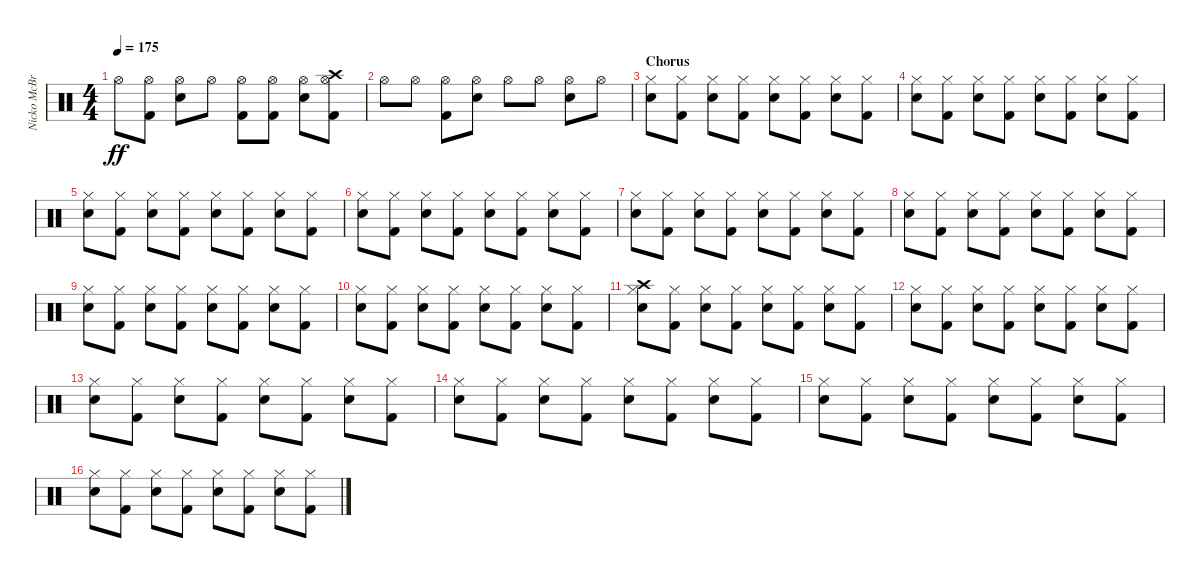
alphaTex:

\track ("Nicko McBrain" "Nicko McBr") {instrument percussion}
\staff {score}
\articulation defaults
\ts (4 4)
\tempo 175
\clef neutral
\ks c "Hi-Hat (open)".8{dy ff}
("Kick (hit) 2" "Hi-Hat (open)").8 ("Snare (hit) 2" "Hi-Hat (open)").8 "Hi-Hat (open)".8 ("Kick (hit) 2" "Hi-Hat (open)").8 ("Kick (hit) 2" "Hi-Hat (open)").8 ("Snare (hit) 2" "Hi-Hat (open)").8 ("Kick (hit) 2" "Hi-Hat (open)" "Crash high (hit)").8 |
"Hi-Hat (open)".8 "Hi-Hat (open)".8 ("Kick (hit) 2" "Hi-Hat (open)").8 ("Snare (hit) 2" "Hi-Hat (open)").8 "Hi-Hat (open)".8 "Hi-Hat (open)".8 ("Snare (hit) 2" "Hi-Hat (open)").8 "Hi-Hat (open)".8 |
\section ("" "Chorus")
("Snare (hit) 2" "Hi-Hat (closed)").8 ("Kick (hit) 2" "Hi-Hat (closed)").8 ("Snare (hit) 2" "Hi-Hat (closed)").8 ("Kick (hit) 2" "Hi-Hat (closed)").8 ("Snare (hit) 2" "Hi-Hat (closed)").8 ("Kick (hit) 2" "Hi-Hat (closed)").8 ("Snare (hit) 2" "Hi-Hat (closed)").8 ("Kick (hit) 2" "Hi-Hat (closed)").8 |
("Snare (hit) 2" "Hi-Hat (closed)").8 ("Kick (hit) 2" "Hi-Hat (closed)").8 ("Snare (hit) 2" "Hi-Hat (closed)").8 ("Kick (hit) 2" "Hi-Hat (closed)").8 ("Snare (hit) 2" "Hi-Hat (closed)").8 ("Kick (hit) 2" "Hi-Hat (closed)").8 ("Snare (hit) 2" "Hi-Hat (closed)").8 ("Kick (hit) 2" "Hi-Hat (closed)").8 |
("Snare (hit) 2" "Hi-Hat (closed)").8 ("Kick (hit) 2" "Hi-Hat (closed)").8 ("Snare (hit) 2" "Hi-Hat (closed)").8 ("Kick (hit) 2" "Hi-Hat (closed)").8 ("Snare (hit) 2" "Hi-Hat (closed)").8 ("Kick (hit) 2" "Hi-Hat (closed)").8 ("Snare (hit) 2" "Hi-Hat (closed)").8 ("Kick (hit) 2" "Hi-Hat (closed)").8 |
("Snare (hit) 2" "Hi-Hat (closed)").8 ("Kick (hit) 2" "Hi-Hat (closed)").8 ("Snare (hit) 2" "Hi-Hat (closed)").8 ("Kick (hit) 2" "Hi-Hat (closed)").8 ("Snare (hit) 2" "Hi-Hat (closed)").8 ("Kick (hit) 2" "Hi-Hat (closed)").8 ("Snare (hit) 2" "Hi-Hat (closed)").8 ("Kick (hit) 2" "Hi-Hat (closed)").8 |
("Snare (hit) 2" "Hi-Hat (closed)").8 ("Kick (hit) 2" "Hi-Hat (closed)").8 ("Snare (hit) 2" "Hi-Hat (closed)").8 ("Kick (hit) 2" "Hi-Hat (closed)").8 ("Snare (hit) 2" "Hi-Hat (closed)").8 ("Kick (hit) 2" "Hi-Hat (closed)").8 ("Snare (hit) 2" "Hi-Hat (closed)").8 ("Kick (hit) 2" "Hi-Hat (closed)").8 |
("Snare (hit) 2" "Hi-Hat (closed)").8 ("Kick (hit) 2" "Hi-Hat (closed)").8 ("Snare (hit) 2" "Hi-Hat (closed)").8 ("Kick (hit) 2" "Hi-Hat (closed)").8 ("Snare (hit) 2" "Hi-Hat (closed)").8 ("Kick (hit) 2" "Hi-Hat (closed)").8 ("Snare (hit) 2" "Hi-Hat (closed)").8 ("Kick (hit) 2" "Hi-Hat (closed)").8 |
("Snare (hit) 2" "Hi-Hat (closed)").8 ("Kick (hit) 2" "Hi-Hat (closed)").8 ("Snare (hit) 2" "Hi-Hat (closed)").8 ("Kick (hit) 2" "Hi-Hat (closed)").8 ("Snare (hit) 2" "Hi-Hat (closed)").8 ("Kick (hit) 2" "Hi-Hat (closed)").8 ("Snare (hit) 2" "Hi-Hat (closed)").8 ("Kick (hit) 2" "Hi-Hat (closed)").8 |
("Snare (hit) 2" "Hi-Hat (closed)").8 ("Kick (hit) 2" "Hi-Hat (closed)").8 ("Snare (hit) 2" "Hi-Hat (closed)").8 ("Kick (hit) 2" "Hi-Hat (closed)").8 ("Snare (hit) 2" "Hi-Hat (closed)").8 ("Kick (hit) 2" "Hi-Hat (closed)").8 ("Snare (hit) 2" "Hi-Hat (closed)").8 ("Kick (hit) 2" "Hi-Hat (closed)").8 |
("Snare (hit) 2" "Hi-Hat (closed)" "Crash high (hit)").8 ("Kick (hit) 2" "Hi-Hat (closed)").8 ("Snare (hit) 2" "Hi-Hat (closed)").8 ("Kick (hit) 2" "Hi-Hat (closed)").8 ("Snare (hit) 2" "Hi-Hat (closed)").8 ("Kick (hit) 2" "Hi-Hat (closed)").8 ("Snare (hit) 2" "Hi-Hat (closed)").8 ("Kick (hit) 2" "Hi-Hat (closed)").8 |
("Snare (hit) 2" "Hi-Hat (closed)").8 ("Kick (hit) 2" "Hi-Hat (closed)").8 ("Snare (hit) 2" "Hi-Hat (closed)").8 ("Kick (hit) 2" "Hi-Hat (closed)").8 ("Snare (hit) 2" "Hi-Hat (closed)").8 ("Kick (hit) 2" "Hi-Hat (closed)").8 ("Snare (hit) 2" "Hi-Hat (closed)").8 ("Kick (hit) 2" "Hi-Hat (closed)").8 |
("Snare (hit) 2" "Hi-Hat (closed)").8 ("Kick (hit) 2" "Hi-Hat (closed)").8 ("Snare (hit) 2" "Hi-Hat (closed)").8 ("Kick (hit) 2" "Hi-Hat (closed)").8 ("Snare (hit) 2" "Hi-Hat (closed)").8 ("Kick (hit) 2" "Hi-Hat (closed)").8 ("Snare (hit) 2" "Hi-Hat (closed)").8 ("Kick (hit) 2" "Hi-Hat (closed)").8 |
("Snare (hit) 2" "Hi-Hat (closed)").8 ("Kick (hit) 2" "Hi-Hat (closed)").8 ("Snare (hit) 2" "Hi-Hat (closed)").8 ("Kick (hit) 2" "Hi-Hat (closed)").8 ("Snare (hit) 2" "Hi-Hat (closed)").8 ("Kick (hit) 2" "Hi-Hat (closed)").8 ("Snare (hit) 2" "Hi-Hat (closed)").8 ("Kick (hit) 2" "Hi-Hat (closed)").8 |
("Snare (hit) 2" "Hi-Hat (closed)").8 ("Kick (hit) 2" "Hi-Hat (closed)").8 ("Snare (hit) 2" "Hi-Hat (closed)").8 ("Kick (hit) 2" "Hi-Hat (closed)").8 ("Snare (hit) 2" "Hi-Hat (closed)").8 ("Kick (hit) 2" "Hi-Hat (closed)").8 ("Snare (hit) 2" "Hi-Hat (closed)").8 ("Kick (hit) 2" "Hi-Hat (closed)").8 |
("Snare (hit) 2" "Hi-Hat (closed)").8 ("Kick (hit) 2" "Hi-Hat (closed)").8 ("Snare (hit) 2" "Hi-Hat (closed)").8 ("Kick (hit) 2" "Hi-Hat (closed)").8 ("Snare (hit) 2" "Hi-Hat (closed)").8 ("Kick (hit) 2" "Hi-Hat (closed)").8 ("Snare (hit) 2" "Hi-Hat (closed)").8 ("Kick (hit) 2" "Hi-Hat (closed)").8
